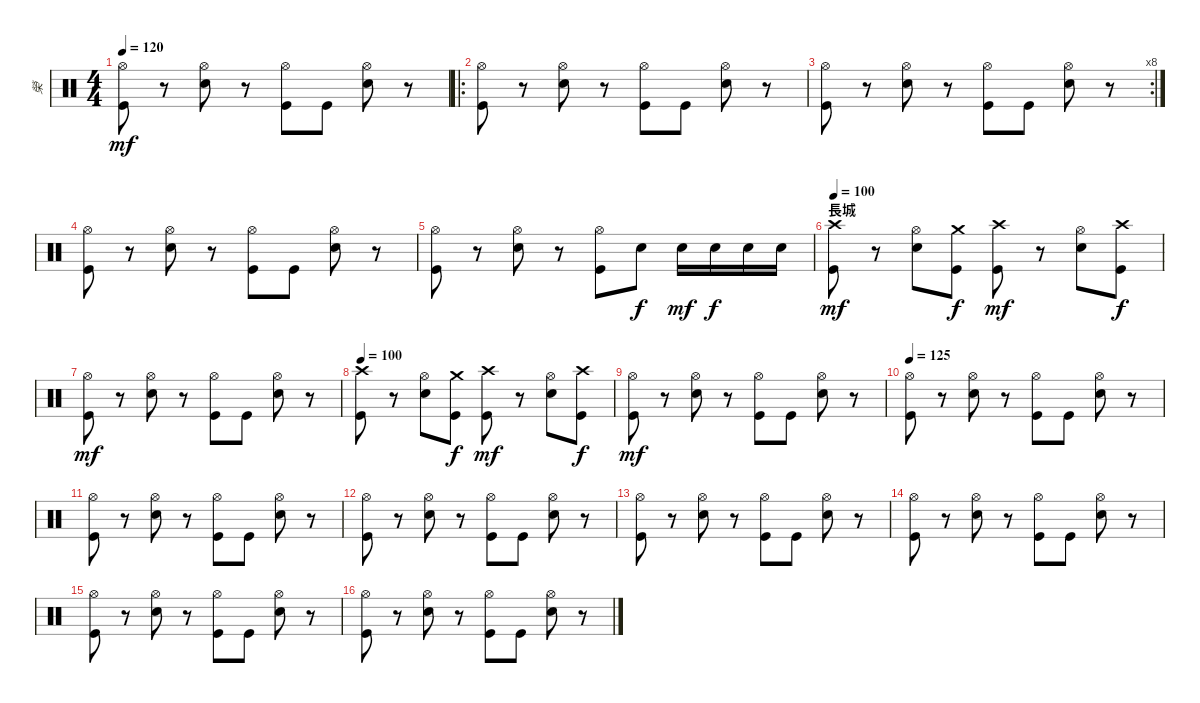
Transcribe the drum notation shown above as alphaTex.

\track ("榮" "榮") {instrument percussion}
\staff {score}
\articulation defaults
\ts (4 4)
\tempo 120
\clef neutral
\ks c
("Hi-Hat (open)" "Kick (hit)").8{dy mf} r.8 ("Hi-Hat (open)" "Snare (hit) 2").8 r.8 ("Hi-Hat (open)" "Kick (hit)").8 "Kick (hit)".8 ("Hi-Hat (open)" "Snare (hit) 2").8 r.8 |
\ro
("Hi-Hat (open)" "Kick (hit)").8 r.8 ("Hi-Hat (open)" "Snare (hit) 2").8 r.8 ("Hi-Hat (open)" "Kick (hit)").8 "Kick (hit)".8 ("Hi-Hat (open)" "Snare (hit) 2").8 r.8 |
\rc 8
("Hi-Hat (open)" "Kick (hit)").8 r.8 ("Hi-Hat (open)" "Snare (hit) 2").8 r.8 ("Hi-Hat (open)" "Kick (hit)").8 "Kick (hit)".8 ("Hi-Hat (open)" "Snare (hit) 2").8 r.8 |
("Hi-Hat (open)" "Kick (hit)").8 r.8 ("Hi-Hat (open)" "Snare (hit) 2").8 r.8 ("Hi-Hat (open)" "Kick (hit)").8 "Kick (hit)".8 ("Hi-Hat (open)" "Snare (hit) 2").8 r.8 |
("Hi-Hat (open)" "Kick (hit)").8 r.8 ("Hi-Hat (open)" "Snare (hit) 2").8 r.8 ("Hi-Hat (open)" "Kick (hit)").8 "Snare (hit) 2".8{dy f} "Snare (hit) 2".16{dy mf} "Snare (hit) 2".16{dy f} "Snare (hit) 2".16 "Snare (hit) 2".16 |
\section ("" "長城")
\tempo 80
\tempo 100
("Crash high (hit)" "Kick (hit)").8{dy mf} r.8 ("Hi-Hat (open)" "Snare (hit) 2").8 ("Crash medium (hit)" "Kick (hit)").8{dy f} ("Crash high (hit)" "Kick (hit)").8{dy mf} r.8 ("Hi-Hat (open)" "Snare (hit) 2").8 ("Crash high (hit)" "Kick (hit)").8{dy f} |
("Hi-Hat (open)" "Kick (hit)").8{dy mf} r.8 ("Hi-Hat (open)" "Snare (hit) 2").8 r.8 ("Hi-Hat (open)" "Kick (hit)").8 "Kick (hit)".8 ("Hi-Hat (open)" "Snare (hit) 2").8 r.8 |
\tempo 80
\tempo 100
("Crash high (hit)" "Kick (hit)").8 r.8 ("Hi-Hat (open)" "Snare (hit) 2").8 ("Crash medium (hit)" "Kick (hit)").8{dy f} ("Crash high (hit)" "Kick (hit)").8{dy mf} r.8 ("Hi-Hat (open)" "Snare (hit) 2").8 ("Crash high (hit)" "Kick (hit)").8{dy f} |
("Hi-Hat (open)" "Kick (hit)").8{dy mf} r.8 ("Hi-Hat (open)" "Snare (hit) 2").8 r.8 ("Hi-Hat (open)" "Kick (hit)").8 "Kick (hit)".8 ("Hi-Hat (open)" "Snare (hit) 2").8 r.8 |
\tempo 125
("Hi-Hat (open)" "Kick (hit)").8 r.8 ("Hi-Hat (open)" "Snare (hit) 2").8 r.8 ("Hi-Hat (open)" "Kick (hit)").8 "Kick (hit)".8 ("Hi-Hat (open)" "Snare (hit) 2").8 r.8 |
("Hi-Hat (open)" "Kick (hit)").8 r.8 ("Hi-Hat (open)" "Snare (hit) 2").8 r.8 ("Hi-Hat (open)" "Kick (hit)").8 "Kick (hit)".8 ("Hi-Hat (open)" "Snare (hit) 2").8 r.8 |
("Hi-Hat (open)" "Kick (hit)").8 r.8 ("Hi-Hat (open)" "Snare (hit) 2").8 r.8 ("Hi-Hat (open)" "Kick (hit)").8 "Kick (hit)".8 ("Hi-Hat (open)" "Snare (hit) 2").8 r.8 |
("Hi-Hat (open)" "Kick (hit)").8 r.8 ("Hi-Hat (open)" "Snare (hit) 2").8 r.8 ("Hi-Hat (open)" "Kick (hit)").8 "Kick (hit)".8 ("Hi-Hat (open)" "Snare (hit) 2").8 r.8 |
("Hi-Hat (open)" "Kick (hit)").8 r.8 ("Hi-Hat (open)" "Snare (hit) 2").8 r.8 ("Hi-Hat (open)" "Kick (hit)").8 "Kick (hit)".8 ("Hi-Hat (open)" "Snare (hit) 2").8 r.8 |
("Hi-Hat (open)" "Kick (hit)").8 r.8 ("Hi-Hat (open)" "Snare (hit) 2").8 r.8 ("Hi-Hat (open)" "Kick (hit)").8 "Kick (hit)".8 ("Hi-Hat (open)" "Snare (hit) 2").8 r.8 |
("Hi-Hat (open)" "Kick (hit)").8 r.8 ("Hi-Hat (open)" "Snare (hit) 2").8 r.8 ("Hi-Hat (open)" "Kick (hit)").8 "Kick (hit)".8 ("Hi-Hat (open)" "Snare (hit) 2").8 r.8
